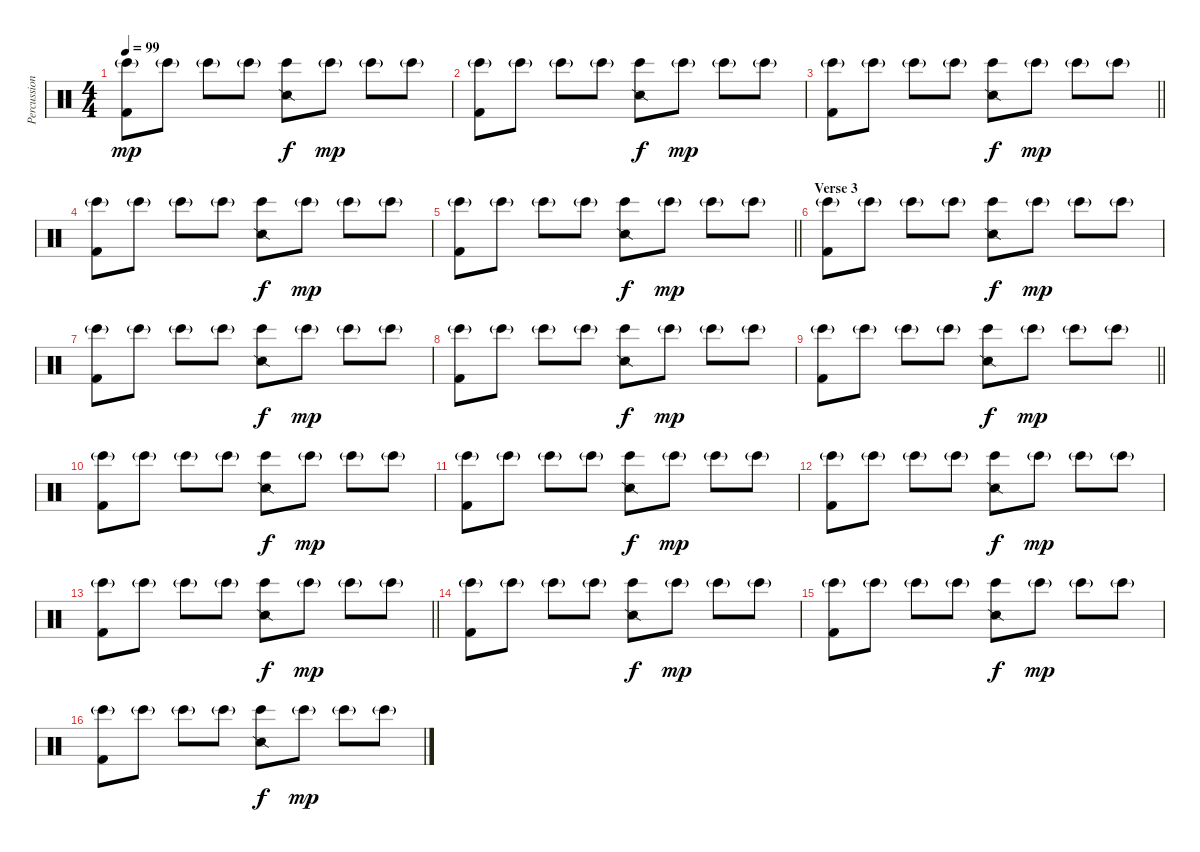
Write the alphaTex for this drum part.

\track ("Percussion" "Percussion") {instrument percussion}
\staff {score}
\articulation defaults
\ts (4 4)
\tempo 99
\clef neutral
\ks c
("Bongo High (hit)"{g} "Kick (hit) 2").8{dy mp} "Bongo High (hit)"{g}.8 "Bongo High (hit)"{g}.8 "Bongo High (hit)"{g}.8 ("Bongo High (hit)" "Snare (side stick) 2").8{dy f} "Bongo High (hit)"{g}.8{dy mp} "Bongo High (hit)"{g}.8 "Bongo High (hit)"{g}.8 |
("Bongo High (hit)"{g} "Kick (hit) 2").8 "Bongo High (hit)"{g}.8 "Bongo High (hit)"{g}.8 "Bongo High (hit)"{g}.8 ("Bongo High (hit)" "Snare (side stick) 2").8{dy f} "Bongo High (hit)"{g}.8{dy mp} "Bongo High (hit)"{g}.8 "Bongo High (hit)"{g}.8 |
\barLineRight lightlight
("Bongo High (hit)"{g} "Kick (hit) 2").8 "Bongo High (hit)"{g}.8 "Bongo High (hit)"{g}.8 "Bongo High (hit)"{g}.8 ("Bongo High (hit)" "Snare (side stick) 2").8{dy f} "Bongo High (hit)"{g}.8{dy mp} "Bongo High (hit)"{g}.8 "Bongo High (hit)"{g}.8 |
("Bongo High (hit)"{g} "Kick (hit) 2").8 "Bongo High (hit)"{g}.8 "Bongo High (hit)"{g}.8 "Bongo High (hit)"{g}.8 ("Bongo High (hit)" "Snare (side stick) 2").8{dy f} "Bongo High (hit)"{g}.8{dy mp} "Bongo High (hit)"{g}.8 "Bongo High (hit)"{g}.8 |
\barLineRight lightlight
("Bongo High (hit)"{g} "Kick (hit) 2").8 "Bongo High (hit)"{g}.8 "Bongo High (hit)"{g}.8 "Bongo High (hit)"{g}.8 ("Bongo High (hit)" "Snare (side stick) 2").8{dy f} "Bongo High (hit)"{g}.8{dy mp} "Bongo High (hit)"{g}.8 "Bongo High (hit)"{g}.8 |
\section ("" "Verse 3")
("Bongo High (hit)"{g} "Kick (hit) 2").8 "Bongo High (hit)"{g}.8 "Bongo High (hit)"{g}.8 "Bongo High (hit)"{g}.8 ("Bongo High (hit)" "Snare (side stick) 2").8{dy f} "Bongo High (hit)"{g}.8{dy mp} "Bongo High (hit)"{g}.8 "Bongo High (hit)"{g}.8 |
("Bongo High (hit)"{g} "Kick (hit) 2").8 "Bongo High (hit)"{g}.8 "Bongo High (hit)"{g}.8 "Bongo High (hit)"{g}.8 ("Bongo High (hit)" "Snare (side stick) 2").8{dy f} "Bongo High (hit)"{g}.8{dy mp} "Bongo High (hit)"{g}.8 "Bongo High (hit)"{g}.8 |
("Bongo High (hit)"{g} "Kick (hit) 2").8 "Bongo High (hit)"{g}.8 "Bongo High (hit)"{g}.8 "Bongo High (hit)"{g}.8 ("Bongo High (hit)" "Snare (side stick) 2").8{dy f} "Bongo High (hit)"{g}.8{dy mp} "Bongo High (hit)"{g}.8 "Bongo High (hit)"{g}.8 |
\barLineRight lightlight
("Bongo High (hit)"{g} "Kick (hit) 2").8 "Bongo High (hit)"{g}.8 "Bongo High (hit)"{g}.8 "Bongo High (hit)"{g}.8 ("Bongo High (hit)" "Snare (side stick) 2").8{dy f} "Bongo High (hit)"{g}.8{dy mp} "Bongo High (hit)"{g}.8 "Bongo High (hit)"{g}.8 |
("Bongo High (hit)"{g} "Kick (hit) 2").8 "Bongo High (hit)"{g}.8 "Bongo High (hit)"{g}.8 "Bongo High (hit)"{g}.8 ("Bongo High (hit)" "Snare (side stick) 2").8{dy f} "Bongo High (hit)"{g}.8{dy mp} "Bongo High (hit)"{g}.8 "Bongo High (hit)"{g}.8 |
("Bongo High (hit)"{g} "Kick (hit) 2").8 "Bongo High (hit)"{g}.8 "Bongo High (hit)"{g}.8 "Bongo High (hit)"{g}.8 ("Bongo High (hit)" "Snare (side stick) 2").8{dy f} "Bongo High (hit)"{g}.8{dy mp} "Bongo High (hit)"{g}.8 "Bongo High (hit)"{g}.8 |
("Bongo High (hit)"{g} "Kick (hit) 2").8 "Bongo High (hit)"{g}.8 "Bongo High (hit)"{g}.8 "Bongo High (hit)"{g}.8 ("Bongo High (hit)" "Snare (side stick) 2").8{dy f} "Bongo High (hit)"{g}.8{dy mp} "Bongo High (hit)"{g}.8 "Bongo High (hit)"{g}.8 |
\barLineRight lightlight
("Bongo High (hit)"{g} "Kick (hit) 2").8 "Bongo High (hit)"{g}.8 "Bongo High (hit)"{g}.8 "Bongo High (hit)"{g}.8 ("Bongo High (hit)" "Snare (side stick) 2").8{dy f} "Bongo High (hit)"{g}.8{dy mp} "Bongo High (hit)"{g}.8 "Bongo High (hit)"{g}.8 |
("Bongo High (hit)"{g} "Kick (hit) 2").8 "Bongo High (hit)"{g}.8 "Bongo High (hit)"{g}.8 "Bongo High (hit)"{g}.8 ("Bongo High (hit)" "Snare (side stick) 2").8{dy f} "Bongo High (hit)"{g}.8{dy mp} "Bongo High (hit)"{g}.8 "Bongo High (hit)"{g}.8 |
("Bongo High (hit)"{g} "Kick (hit) 2").8 "Bongo High (hit)"{g}.8 "Bongo High (hit)"{g}.8 "Bongo High (hit)"{g}.8 ("Bongo High (hit)" "Snare (side stick) 2").8{dy f} "Bongo High (hit)"{g}.8{dy mp} "Bongo High (hit)"{g}.8 "Bongo High (hit)"{g}.8 |
("Bongo High (hit)"{g} "Kick (hit) 2").8 "Bongo High (hit)"{g}.8 "Bongo High (hit)"{g}.8 "Bongo High (hit)"{g}.8 ("Bongo High (hit)" "Snare (side stick) 2").8{dy f} "Bongo High (hit)"{g}.8{dy mp} "Bongo High (hit)"{g}.8 "Bongo High (hit)"{g}.8
